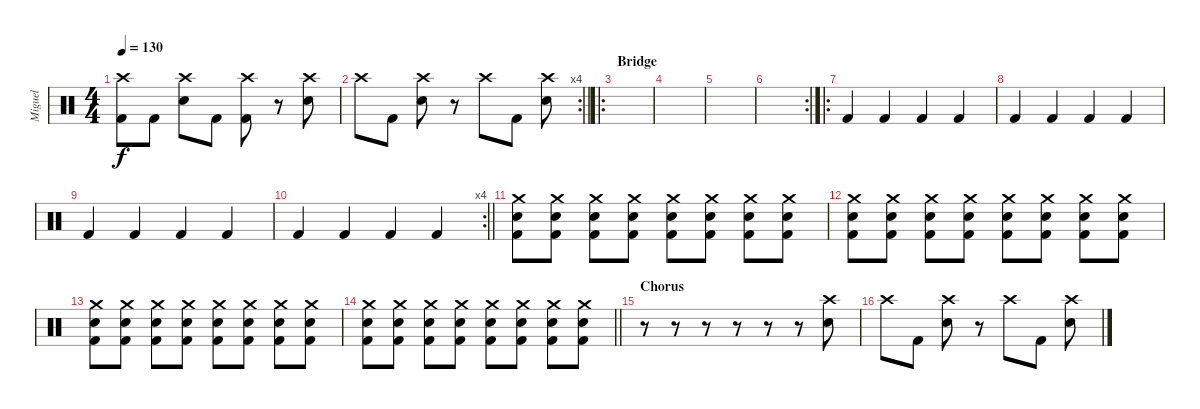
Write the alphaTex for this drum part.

\track ("Miguel" "Miguel") {instrument percussion}
\staff {score}
\articulation defaults
\ts (4 4)
\tempo 130
\clef neutral
\ks c
("Crash high (hit)" "Kick (hit) 2").8{dy f} "Kick (hit) 2".8 ("Crash high (hit)" "Snare (hit) 2").8 "Kick (hit) 2".8 ("Crash high (hit)" "Kick (hit) 2").8 r.8 ("Crash high (hit)" "Snare (hit) 2").8 |
\rc 4
\barLineRight lightlight "Crash high (hit)".8 "Kick (hit) 2".8
("Crash high (hit)" "Snare (hit) 2").8 r.8 "Crash high (hit)".8 "Kick (hit) 2".8 ("Crash high (hit)" "Snare (hit) 2").8 |
\ro
\section ("" "Bridge")
|
|
|
\rc 2
|
\ro "Kick (hit) 2".4 "Kick (hit) 2".4 "Kick (hit) 2".4 "Kick (hit) 2".4
|
"Kick (hit) 2".4 "Kick (hit) 2".4 "Kick (hit) 2".4 "Kick (hit) 2".4 |
"Kick (hit) 2".4 "Kick (hit) 2".4 "Kick (hit) 2".4 "Kick (hit) 2".4 |
\rc 4
\barLineRight lightlight "Kick (hit) 2".4 "Kick (hit) 2".4 "Kick (hit) 2".4 "Kick (hit) 2".4
|
("Crash medium (hit)" "Snare (hit) 2" "Kick (hit) 2").8 ("Crash medium (hit)" "Snare (hit) 2" "Kick (hit) 2").8 ("Crash medium (hit)" "Snare (hit) 2" "Kick (hit) 2").8 ("Crash medium (hit)" "Snare (hit) 2" "Kick (hit) 2").8 ("Crash medium (hit)" "Snare (hit) 2" "Kick (hit) 2").8 ("Crash medium (hit)" "Snare (hit) 2" "Kick (hit) 2").8 ("Crash medium (hit)" "Snare (hit) 2" "Kick (hit) 2").8 ("Crash medium (hit)" "Snare (hit) 2" "Kick (hit) 2").8 |
("Crash medium (hit)" "Snare (hit) 2" "Kick (hit) 2").8 ("Crash medium (hit)" "Snare (hit) 2" "Kick (hit) 2").8 ("Crash medium (hit)" "Snare (hit) 2" "Kick (hit) 2").8 ("Crash medium (hit)" "Snare (hit) 2" "Kick (hit) 2").8 ("Crash medium (hit)" "Snare (hit) 2" "Kick (hit) 2").8 ("Crash medium (hit)" "Snare (hit) 2" "Kick (hit) 2").8 ("Crash medium (hit)" "Snare (hit) 2" "Kick (hit) 2").8 ("Crash medium (hit)" "Snare (hit) 2" "Kick (hit) 2").8 |
("Crash medium (hit)" "Snare (hit) 2" "Kick (hit) 2").8 ("Crash medium (hit)" "Snare (hit) 2" "Kick (hit) 2").8 ("Crash medium (hit)" "Snare (hit) 2" "Kick (hit) 2").8 ("Crash medium (hit)" "Snare (hit) 2" "Kick (hit) 2").8 ("Crash medium (hit)" "Snare (hit) 2" "Kick (hit) 2").8 ("Crash medium (hit)" "Snare (hit) 2" "Kick (hit) 2").8 ("Crash medium (hit)" "Snare (hit) 2" "Kick (hit) 2").8 ("Crash medium (hit)" "Snare (hit) 2" "Kick (hit) 2").8 |
\barLineRight lightlight
("Crash medium (hit)" "Snare (hit) 2" "Kick (hit) 2").8 ("Crash medium (hit)" "Snare (hit) 2" "Kick (hit) 2").8 ("Crash medium (hit)" "Snare (hit) 2" "Kick (hit) 2").8 ("Crash medium (hit)" "Snare (hit) 2" "Kick (hit) 2").8 ("Crash medium (hit)" "Snare (hit) 2" "Kick (hit) 2").8 ("Crash medium (hit)" "Snare (hit) 2" "Kick (hit) 2").8 ("Crash medium (hit)" "Snare (hit) 2" "Kick (hit) 2").8 ("Crash medium (hit)" "Snare (hit) 2" "Kick (hit) 2").8 |
\section ("" "Chorus")
r.8 r.8 r.8 r.8 r.8 r.8 ("Crash high (hit)" "Snare (hit) 2").8 |
"Crash high (hit)".8 "Kick (hit) 2".8 ("Crash high (hit)" "Snare (hit) 2").8 r.8 "Crash high (hit)".8 "Kick (hit) 2".8 ("Crash high (hit)" "Snare (hit) 2").8
